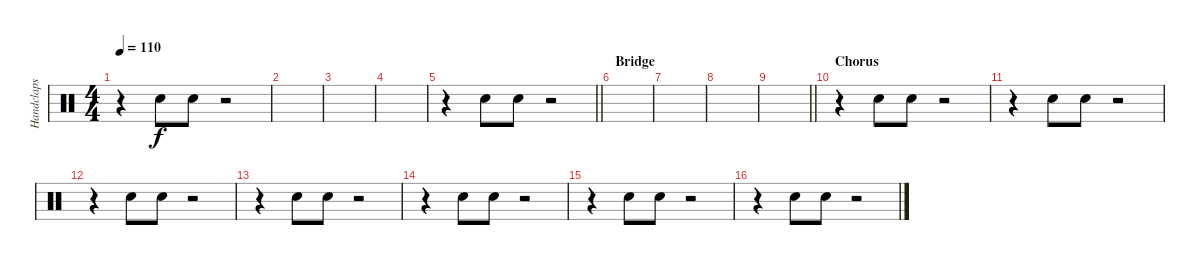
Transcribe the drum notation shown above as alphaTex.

\track ("Handclaps" "Handclaps") {instrument percussion}
\staff {score}
\articulation defaults
\ts (4 4)
\tempo 110
\clef neutral
\ks c
r.4{dy f} "Hand Clap (hit)".8 "Hand Clap (hit)".8 r.2 |
|
|
|
\barLineRight lightlight
r.4 "Hand Clap (hit)".8 "Hand Clap (hit)".8 r.2 |
\section ("" "Bridge")
|
|
|
\barLineRight lightlight
|
\section ("" "Chorus")
r.4 "Hand Clap (hit)".8 "Hand Clap (hit)".8 r.2 |
r.4 "Hand Clap (hit)".8 "Hand Clap (hit)".8 r.2 |
r.4 "Hand Clap (hit)".8 "Hand Clap (hit)".8 r.2 |
r.4 "Hand Clap (hit)".8 "Hand Clap (hit)".8 r.2 |
r.4 "Hand Clap (hit)".8 "Hand Clap (hit)".8 r.2 |
r.4 "Hand Clap (hit)".8 "Hand Clap (hit)".8 r.2 |
r.4 "Hand Clap (hit)".8 "Hand Clap (hit)".8 r.2
